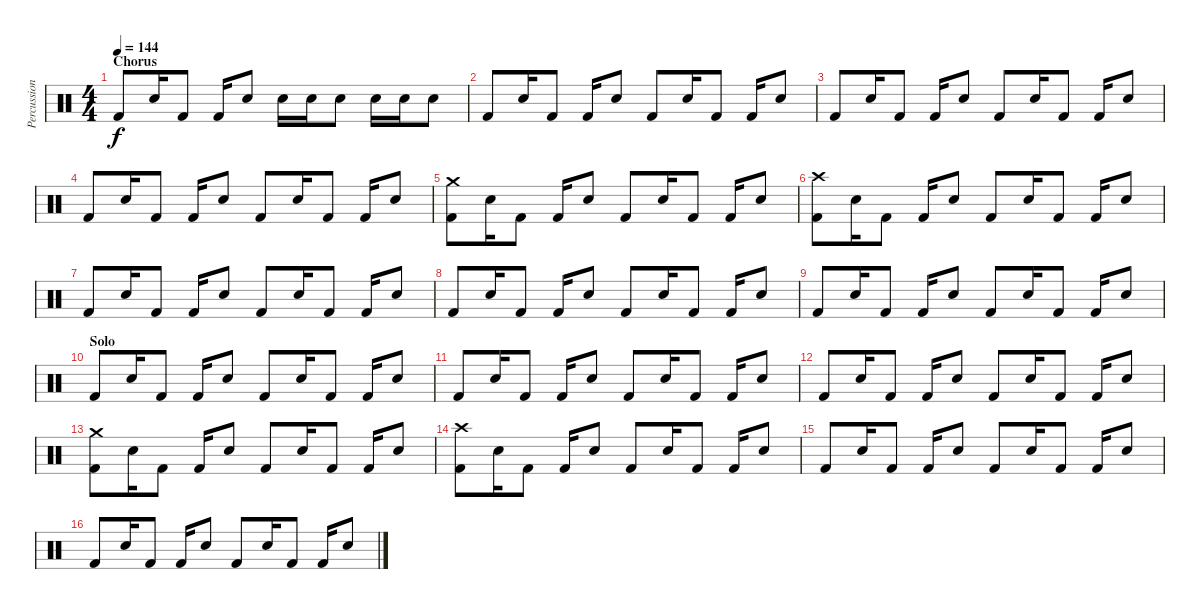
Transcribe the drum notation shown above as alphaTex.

\track ("Percussion" "Percussion") {instrument percussion}
\staff {score}
\articulation defaults
\ts (4 4)
\section ("" "Chorus")
\tempo 144
\clef neutral
\ks c "Kick (hit) 2".8{dy f} "Snare (hit) 2".16 "Kick (hit) 2".8 "Kick (hit) 2".16 "Snare (hit) 2".8 "Snare (hit) 2".16 "Snare (hit) 2".16 "Snare (hit) 2".8 "Snare (hit) 2".16 "Snare (hit) 2".16 "Snare (hit) 2".8
|
"Kick (hit) 2".8 "Snare (hit) 2".16 "Kick (hit) 2".8 "Kick (hit) 2".16 "Snare (hit) 2".8 "Kick (hit) 2".8 "Snare (hit) 2".16 "Kick (hit) 2".8 "Kick (hit) 2".16 "Snare (hit) 2".8 |
"Kick (hit) 2".8 "Snare (hit) 2".16 "Kick (hit) 2".8 "Kick (hit) 2".16 "Snare (hit) 2".8 "Kick (hit) 2".8 "Snare (hit) 2".16 "Kick (hit) 2".8 "Kick (hit) 2".16 "Snare (hit) 2".8 |
"Kick (hit) 2".8 "Snare (hit) 2".16 "Kick (hit) 2".8 "Kick (hit) 2".16 "Snare (hit) 2".8 "Kick (hit) 2".8 "Snare (hit) 2".16 "Kick (hit) 2".8 "Kick (hit) 2".16 "Snare (hit) 2".8 |
("Crash medium (hit)" "Kick (hit) 2").8 "Snare (hit) 2".16 "Kick (hit) 2".8 "Kick (hit) 2".16 "Snare (hit) 2".8 "Kick (hit) 2".8 "Snare (hit) 2".16 "Kick (hit) 2".8 "Kick (hit) 2".16 "Snare (hit) 2".8 |
("Crash high (hit)" "Kick (hit) 2").8 "Snare (hit) 2".16 "Kick (hit) 2".8 "Kick (hit) 2".16 "Snare (hit) 2".8 "Kick (hit) 2".8 "Snare (hit) 2".16 "Kick (hit) 2".8 "Kick (hit) 2".16 "Snare (hit) 2".8 |
"Kick (hit) 2".8 "Snare (hit) 2".16 "Kick (hit) 2".8 "Kick (hit) 2".16 "Snare (hit) 2".8 "Kick (hit) 2".8 "Snare (hit) 2".16 "Kick (hit) 2".8 "Kick (hit) 2".16 "Snare (hit) 2".8 |
"Kick (hit) 2".8 "Snare (hit) 2".16 "Kick (hit) 2".8 "Kick (hit) 2".16 "Snare (hit) 2".8 "Kick (hit) 2".8 "Snare (hit) 2".16 "Kick (hit) 2".8 "Kick (hit) 2".16 "Snare (hit) 2".8 |
"Kick (hit) 2".8 "Snare (hit) 2".16 "Kick (hit) 2".8 "Kick (hit) 2".16 "Snare (hit) 2".8 "Kick (hit) 2".8 "Snare (hit) 2".16 "Kick (hit) 2".8 "Kick (hit) 2".16 "Snare (hit) 2".8 |
\section ("" "Solo")
"Kick (hit) 2".8 "Snare (hit) 2".16 "Kick (hit) 2".8 "Kick (hit) 2".16 "Snare (hit) 2".8 "Kick (hit) 2".8 "Snare (hit) 2".16 "Kick (hit) 2".8 "Kick (hit) 2".16 "Snare (hit) 2".8 |
"Kick (hit) 2".8 "Snare (hit) 2".16 "Kick (hit) 2".8 "Kick (hit) 2".16 "Snare (hit) 2".8 "Kick (hit) 2".8 "Snare (hit) 2".16 "Kick (hit) 2".8 "Kick (hit) 2".16 "Snare (hit) 2".8 |
"Kick (hit) 2".8 "Snare (hit) 2".16 "Kick (hit) 2".8 "Kick (hit) 2".16 "Snare (hit) 2".8 "Kick (hit) 2".8 "Snare (hit) 2".16 "Kick (hit) 2".8 "Kick (hit) 2".16 "Snare (hit) 2".8 |
("Crash medium (hit)" "Kick (hit) 2").8 "Snare (hit) 2".16 "Kick (hit) 2".8 "Kick (hit) 2".16 "Snare (hit) 2".8 "Kick (hit) 2".8 "Snare (hit) 2".16 "Kick (hit) 2".8 "Kick (hit) 2".16 "Snare (hit) 2".8 |
("Crash high (hit)" "Kick (hit) 2").8 "Snare (hit) 2".16 "Kick (hit) 2".8 "Kick (hit) 2".16 "Snare (hit) 2".8 "Kick (hit) 2".8 "Snare (hit) 2".16 "Kick (hit) 2".8 "Kick (hit) 2".16 "Snare (hit) 2".8 |
"Kick (hit) 2".8 "Snare (hit) 2".16 "Kick (hit) 2".8 "Kick (hit) 2".16 "Snare (hit) 2".8 "Kick (hit) 2".8 "Snare (hit) 2".16 "Kick (hit) 2".8 "Kick (hit) 2".16 "Snare (hit) 2".8 |
"Kick (hit) 2".8 "Snare (hit) 2".16 "Kick (hit) 2".8 "Kick (hit) 2".16 "Snare (hit) 2".8 "Kick (hit) 2".8 "Snare (hit) 2".16 "Kick (hit) 2".8 "Kick (hit) 2".16 "Snare (hit) 2".8
